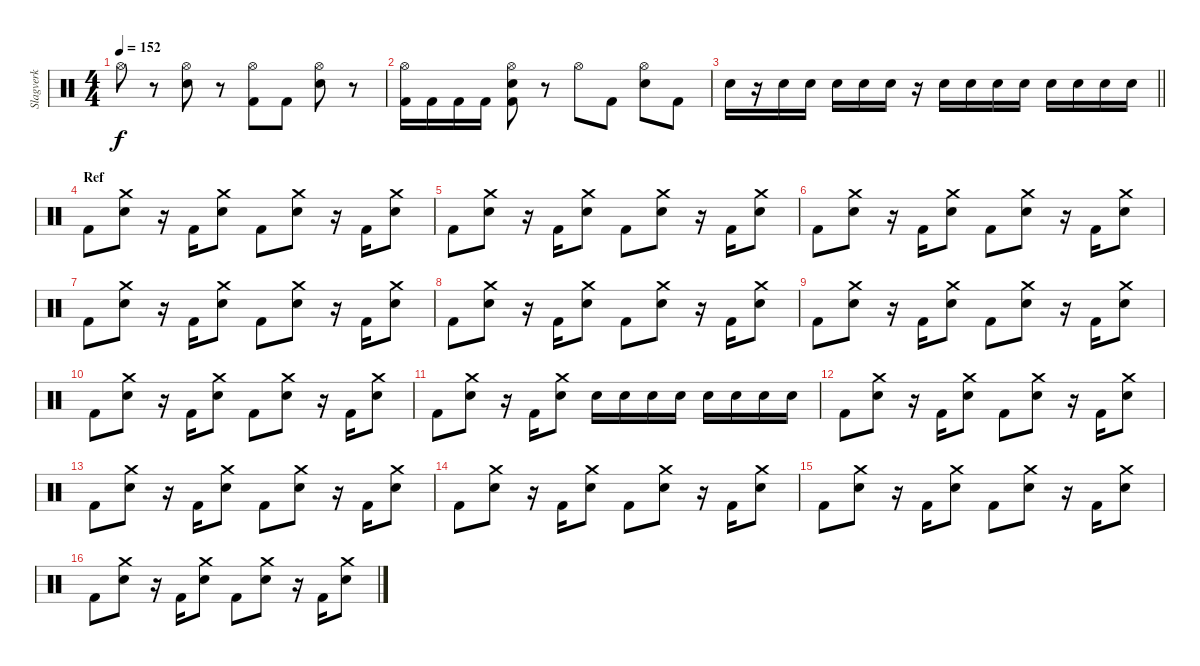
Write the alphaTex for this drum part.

\track ("Slagverk" "Slagverk") {instrument percussion}
\staff
\articulation defaults
\ts (4 4)
\tempo 152
\clef neutral
\ks c "Hi-Hat (open)".8{dy f}
r.8 ("Hi-Hat (open)" "Electric Snare (hit)").8 r.8 ("Hi-Hat (open)" "Kick (hit) 2").8 "Kick (hit) 2".8 ("Hi-Hat (open)" "Electric Snare (hit)").8 r.8 |
("Hi-Hat (open)" "Kick (hit) 2").16 "Kick (hit) 2".16 "Kick (hit) 2".16 "Kick (hit) 2".16 ("Hi-Hat (open)" "Electric Snare (hit)" "Kick (hit) 2").8 r.8 "Hi-Hat (open)".8 "Kick (hit) 2".8 ("Hi-Hat (open)" "Electric Snare (hit)").8 "Kick (hit) 2".8 |
\barLineRight lightlight "Electric Snare (hit)".16
r.16 "Electric Snare (hit)".16 "Electric Snare (hit)".16 "Electric Snare (hit)".16 "Electric Snare (hit)".16 "Electric Snare (hit)".16 r.16 "Electric Snare (hit)".16 "Electric Snare (hit)".16 "Electric Snare (hit)".16 "Electric Snare (hit)".16 "Electric Snare (hit)".16 "Electric Snare (hit)".16 "Electric Snare (hit)".16 "Electric Snare (hit)".16 |
\section ("" "Ref")
"Kick (hit) 2".8 ("Crash medium (hit)" "Electric Snare (hit)").8 r.16 "Kick (hit) 2".16 ("Crash medium (hit)" "Electric Snare (hit)").8 "Kick (hit) 2".8 ("Crash medium (hit)" "Electric Snare (hit)").8 r.16 "Kick (hit) 2".16 ("Crash medium (hit)" "Electric Snare (hit)").8 |
"Kick (hit) 2".8 ("Crash medium (hit)" "Electric Snare (hit)").8 r.16 "Kick (hit) 2".16 ("Crash medium (hit)" "Electric Snare (hit)").8 "Kick (hit) 2".8 ("Crash medium (hit)" "Electric Snare (hit)").8 r.16 "Kick (hit) 2".16 ("Crash medium (hit)" "Electric Snare (hit)").8 |
"Kick (hit) 2".8 ("Crash medium (hit)" "Electric Snare (hit)").8 r.16 "Kick (hit) 2".16 ("Crash medium (hit)" "Electric Snare (hit)").8 "Kick (hit) 2".8 ("Crash medium (hit)" "Electric Snare (hit)").8 r.16 "Kick (hit) 2".16 ("Crash medium (hit)" "Electric Snare (hit)").8 |
"Kick (hit) 2".8 ("Crash medium (hit)" "Electric Snare (hit)").8 r.16 "Kick (hit) 2".16 ("Crash medium (hit)" "Electric Snare (hit)").8 "Kick (hit) 2".8 ("Crash medium (hit)" "Electric Snare (hit)").8 r.16 "Kick (hit) 2".16 ("Crash medium (hit)" "Electric Snare (hit)").8 |
"Kick (hit) 2".8 ("Crash medium (hit)" "Electric Snare (hit)").8 r.16 "Kick (hit) 2".16 ("Crash medium (hit)" "Electric Snare (hit)").8 "Kick (hit) 2".8 ("Crash medium (hit)" "Electric Snare (hit)").8 r.16 "Kick (hit) 2".16 ("Crash medium (hit)" "Electric Snare (hit)").8 |
"Kick (hit) 2".8 ("Crash medium (hit)" "Electric Snare (hit)").8 r.16 "Kick (hit) 2".16 ("Crash medium (hit)" "Electric Snare (hit)").8 "Kick (hit) 2".8 ("Crash medium (hit)" "Electric Snare (hit)").8 r.16 "Kick (hit) 2".16 ("Crash medium (hit)" "Electric Snare (hit)").8 |
"Kick (hit) 2".8 ("Crash medium (hit)" "Electric Snare (hit)").8 r.16 "Kick (hit) 2".16 ("Crash medium (hit)" "Electric Snare (hit)").8 "Kick (hit) 2".8 ("Crash medium (hit)" "Electric Snare (hit)").8 r.16 "Kick (hit) 2".16 ("Crash medium (hit)" "Electric Snare (hit)").8 |
"Kick (hit) 2".8 ("Crash medium (hit)" "Electric Snare (hit)").8 r.16 "Kick (hit) 2".16 ("Crash medium (hit)" "Electric Snare (hit)").8 "Electric Snare (hit)".16 "Electric Snare (hit)".16 "Electric Snare (hit)".16 "Electric Snare (hit)".16 "Electric Snare (hit)".16 "Electric Snare (hit)".16 "Electric Snare (hit)".16 "Electric Snare (hit)".16 |
"Kick (hit) 2".8 ("Crash medium (hit)" "Electric Snare (hit)").8 r.16 "Kick (hit) 2".16 ("Crash medium (hit)" "Electric Snare (hit)").8 "Kick (hit) 2".8 ("Crash medium (hit)" "Electric Snare (hit)").8 r.16 "Kick (hit) 2".16 ("Crash medium (hit)" "Electric Snare (hit)").8 |
"Kick (hit) 2".8 ("Crash medium (hit)" "Electric Snare (hit)").8 r.16 "Kick (hit) 2".16 ("Crash medium (hit)" "Electric Snare (hit)").8 "Kick (hit) 2".8 ("Crash medium (hit)" "Electric Snare (hit)").8 r.16 "Kick (hit) 2".16 ("Crash medium (hit)" "Electric Snare (hit)").8 |
"Kick (hit) 2".8 ("Crash medium (hit)" "Electric Snare (hit)").8 r.16 "Kick (hit) 2".16 ("Crash medium (hit)" "Electric Snare (hit)").8 "Kick (hit) 2".8 ("Crash medium (hit)" "Electric Snare (hit)").8 r.16 "Kick (hit) 2".16 ("Crash medium (hit)" "Electric Snare (hit)").8 |
"Kick (hit) 2".8 ("Crash medium (hit)" "Electric Snare (hit)").8 r.16 "Kick (hit) 2".16 ("Crash medium (hit)" "Electric Snare (hit)").8 "Kick (hit) 2".8 ("Crash medium (hit)" "Electric Snare (hit)").8 r.16 "Kick (hit) 2".16 ("Crash medium (hit)" "Electric Snare (hit)").8 |
"Kick (hit) 2".8 ("Crash medium (hit)" "Electric Snare (hit)").8 r.16 "Kick (hit) 2".16 ("Crash medium (hit)" "Electric Snare (hit)").8 "Kick (hit) 2".8 ("Crash medium (hit)" "Electric Snare (hit)").8 r.16 "Kick (hit) 2".16 ("Crash medium (hit)" "Electric Snare (hit)").8
